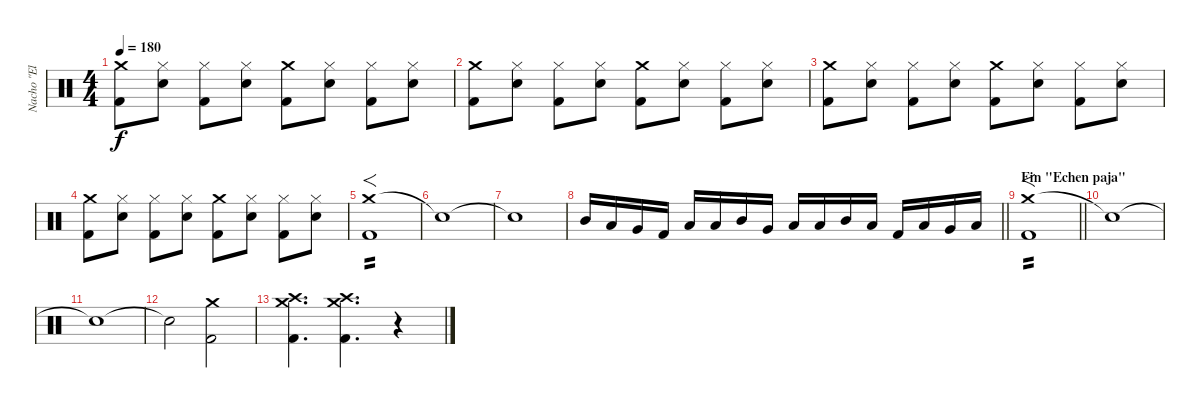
\track ("Nacho \"El Implacable\"Gonzales" "Nacho \"El ") {instrument percussion}
\staff {score}
\articulation defaults
\ts (4 4)
\tempo 180
\clef neutral
\ks c
("Crash medium (hit)" "Kick (hit) 2").8{dy f} ("Hi-Hat (closed)" "Electric Snare (hit)").8 ("Hi-Hat (closed)" "Kick (hit) 2").8 ("Hi-Hat (closed)" "Electric Snare (hit)").8 ("Crash medium (hit)" "Kick (hit) 2").8 ("Hi-Hat (closed)" "Electric Snare (hit)").8 ("Hi-Hat (closed)" "Kick (hit) 2").8 ("Hi-Hat (closed)" "Electric Snare (hit)").8 |
("Crash medium (hit)" "Kick (hit) 2").8 ("Hi-Hat (closed)" "Electric Snare (hit)").8 ("Hi-Hat (closed)" "Kick (hit) 2").8 ("Hi-Hat (closed)" "Electric Snare (hit)").8 ("Crash medium (hit)" "Kick (hit) 2").8 ("Hi-Hat (closed)" "Electric Snare (hit)").8 ("Hi-Hat (closed)" "Kick (hit) 2").8 ("Hi-Hat (closed)" "Electric Snare (hit)").8 |
("Crash medium (hit)" "Kick (hit) 2").8 ("Hi-Hat (closed)" "Electric Snare (hit)").8 ("Hi-Hat (closed)" "Kick (hit) 2").8 ("Hi-Hat (closed)" "Electric Snare (hit)").8 ("Crash medium (hit)" "Kick (hit) 2").8 ("Hi-Hat (closed)" "Electric Snare (hit)").8 ("Hi-Hat (closed)" "Kick (hit) 2").8 ("Hi-Hat (closed)" "Electric Snare (hit)").8 |
("Crash medium (hit)" "Kick (hit) 2").8 ("Hi-Hat (closed)" "Electric Snare (hit)").8 ("Hi-Hat (closed)" "Kick (hit) 2").8 ("Hi-Hat (closed)" "Electric Snare (hit)").8 ("Crash medium (hit)" "Kick (hit) 2").8 ("Hi-Hat (closed)" "Electric Snare (hit)").8 ("Hi-Hat (closed)" "Kick (hit) 2").8 ("Hi-Hat (closed)" "Electric Snare (hit)").8 |
("Crash medium (hit)" "Kick (hit) 2").1{f tp 2} |
"Snare (hit)"{t}.1 |
"Snare (hit)"{t}.1 |
\barLineRight lightlight "Mid Tom (hit)".16 "Low Tom (hit)".16 "Very Low Tom (hit)".16 "Kick (hit) 2".16 "Low Tom (hit)".16 "Low Tom (hit)".16 "Mid Tom (hit)".16 "Very Low Tom (hit)".16 "Low Floor Tom (hit)".16 "Low Tom (hit)".16 "Mid Tom (hit)".16 "Low Tom (hit)".16 "Kick (hit) 2".16 "Low Tom (hit)".16 "Very Low Tom (hit)".16 "Low Tom (hit)".16
|
\section ("" "Fin \"Echen paja\"")
\barLineRight lightlight
("Crash medium (hit)" "Kick (hit) 2").1{f tp 2} |
"Snare (hit)"{t}.1 |
"Snare (hit)"{t}.1 |
"Snare (hit)"{t}.2 ("Crash medium (hit)" "Kick (hit) 2").2 |
("Crash medium (hit)" "Crash high (hit)" "Kick (hit) 2").4{d} ("Crash medium (hit)" "Crash high (hit)" "Kick (hit) 2").4{d} r.4
